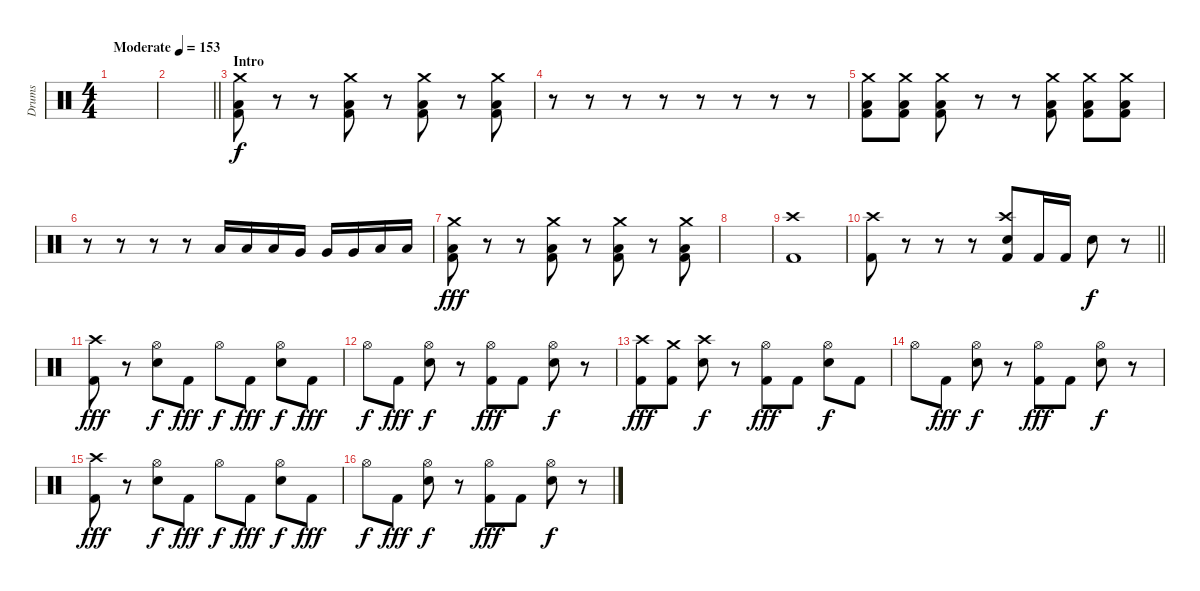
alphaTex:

\track ("Drums" "Drums") {instrument percussion}
\staff {score}
\articulation defaults
\ts (4 4)
\tempo (153 "Moderate")
\clef neutral
\ks c
|
\barLineRight lightlight
|
\section ("" "Intro")
("Crash medium (hit)" "Low Floor Tom (hit)" "Kick (hit) 2").8 r.8 r.8 ("Crash medium (hit)" "Low Floor Tom (hit)" "Kick (hit) 2").8 r.8 ("Crash medium (hit)" "Low Floor Tom (hit)" "Kick (hit) 2").8 r.8 ("Crash medium (hit)" "Low Floor Tom (hit)" "Kick (hit) 2").8 |
r.8 r.8 r.8 r.8 r.8 r.8 r.8 r.8 |
("Crash medium (hit)" "Low Floor Tom (hit)" "Kick (hit) 2").8 ("Crash medium (hit)" "Low Floor Tom (hit)" "Kick (hit) 2").8 ("Crash medium (hit)" "Low Floor Tom (hit)" "Kick (hit) 2").8 r.8 r.8 ("Crash medium (hit)" "Low Floor Tom (hit)" "Kick (hit) 2").8 ("Crash medium (hit)" "Low Floor Tom (hit)" "Kick (hit) 2").8 ("Crash medium (hit)" "Low Floor Tom (hit)" "Kick (hit) 2").8 |
r.8 r.8 r.8 r.8 "Low Tom (hit)".16{dy f} "Low Tom (hit)".16 "Low Tom (hit)".16 "Very Low Tom (hit)".16 "Very Low Tom (hit)".16 "Very Low Tom (hit)".16 "Low Floor Tom (hit)".16 "Low Floor Tom (hit)".16 |
("Crash medium (hit)" "Low Floor Tom (hit)" "Kick (hit) 2").8{dy fff} r.8 r.8 ("Crash medium (hit)" "Low Floor Tom (hit)" "Kick (hit) 2").8 r.8 ("Crash medium (hit)" "Low Floor Tom (hit)" "Kick (hit) 2").8 r.8 ("Crash medium (hit)" "Low Floor Tom (hit)" "Kick (hit) 2").8 |
|
("Crash high (hit)" "Kick (hit) 2").1 |
\barLineRight lightlight
("Crash high (hit)" "Kick (hit) 2").8 r.8 r.8 r.8 ("Crash high (hit)" "Electric Snare (hit)" "Kick (hit) 2").8 "Kick (hit) 2".16 "Kick (hit) 2".16 "Electric Snare (hit)".8{dy f} r.8 |
\section ("" "")
("Crash high (hit)" "Kick (hit) 2").8{dy fff} r.8 ("Hi-Hat (open)" "Electric Snare (hit)").8{dy f} "Kick (hit) 2".8{dy fff} "Hi-Hat (open)".8{dy f} "Kick (hit) 2".8{dy fff} ("Hi-Hat (open)" "Electric Snare (hit)").8{dy f} "Kick (hit) 2".8{dy fff} |
"Hi-Hat (open)".8{dy f} "Kick (hit) 2".8{dy fff} ("Hi-Hat (open)" "Electric Snare (hit)").8{dy f} r.8 ("Hi-Hat (open)" "Kick (hit) 2").8{dy fff} "Kick (hit) 2".8 ("Hi-Hat (open)" "Electric Snare (hit)").8{dy f} r.8 |
("Crash high (hit)" "Kick (hit) 2").8{dy fff} ("Crash medium (hit)" "Kick (hit) 2").8 ("Crash high (hit)" "Electric Snare (hit)").8{dy f} r.8 ("Hi-Hat (open)" "Kick (hit) 2").8{dy fff} "Kick (hit) 2".8 ("Hi-Hat (open)" "Electric Snare (hit)").8{dy f} "Kick (hit) 2".8 |
"Hi-Hat (open)".8 "Kick (hit) 2".8{dy fff} ("Hi-Hat (open)" "Electric Snare (hit)").8{dy f} r.8 ("Hi-Hat (open)" "Kick (hit) 2").8{dy fff} "Kick (hit) 2".8 ("Hi-Hat (open)" "Electric Snare (hit)").8{dy f} r.8 |
("Crash high (hit)" "Kick (hit) 2").8{dy fff} r.8 ("Hi-Hat (open)" "Electric Snare (hit)").8{dy f} "Kick (hit) 2".8{dy fff} "Hi-Hat (open)".8{dy f} "Kick (hit) 2".8{dy fff} ("Hi-Hat (open)" "Electric Snare (hit)").8{dy f} "Kick (hit) 2".8{dy fff} |
"Hi-Hat (open)".8{dy f} "Kick (hit) 2".8{dy fff} ("Hi-Hat (open)" "Electric Snare (hit)").8{dy f} r.8 ("Hi-Hat (open)" "Kick (hit) 2").8{dy fff} "Kick (hit) 2".8 ("Hi-Hat (open)" "Electric Snare (hit)").8{dy f} r.8
